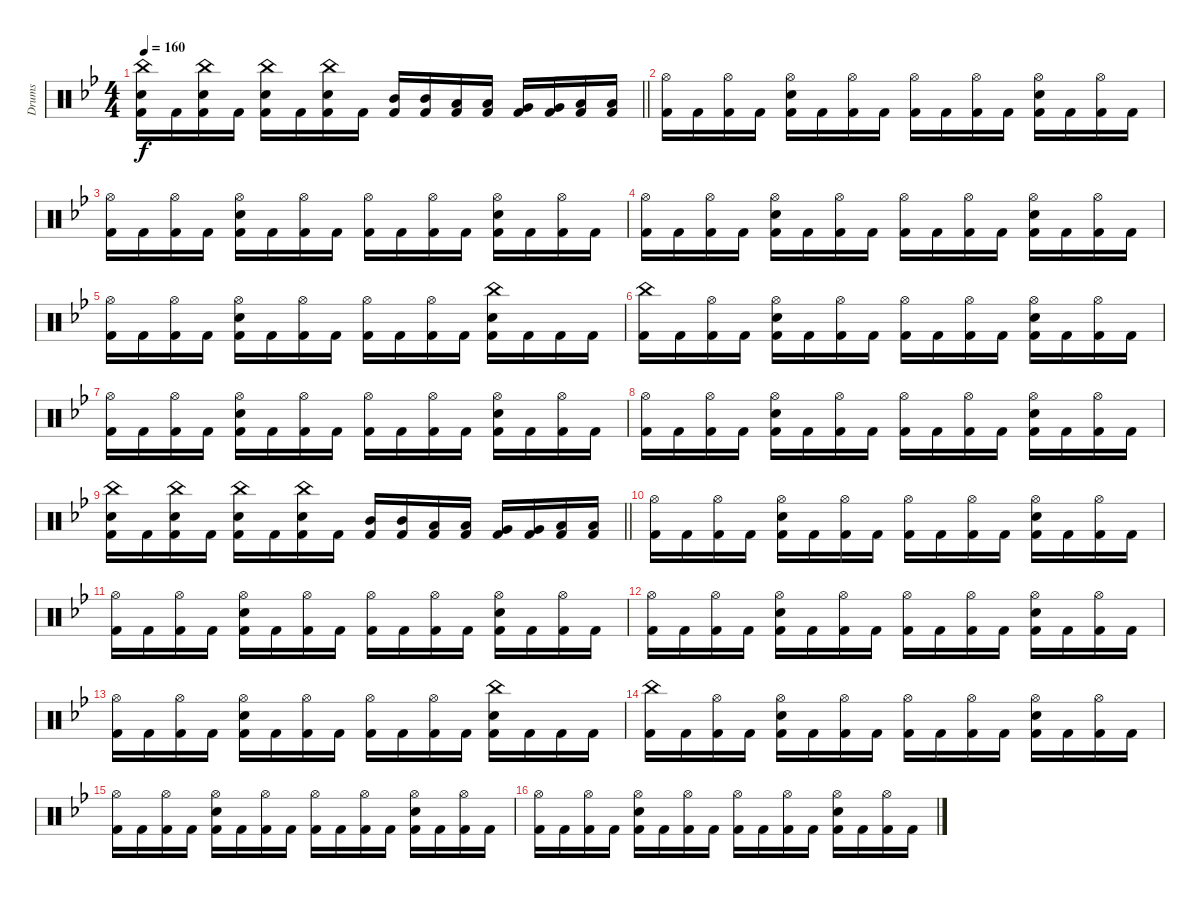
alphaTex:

\track ("Drums" "Drums") {instrument percussion}
\staff {score}
\articulation defaults
\ts (4 4)
\tempo 160
\clef neutral
\barLineRight lightlight
\ks bb
("China (hit)" "Electric Snare (hit)" "Kick (hit) 2").16{dy f} "Kick (hit) 2".16 ("China (hit)" "Electric Snare (hit)" "Kick (hit) 2").16 "Kick (hit) 2".16 ("China (hit)" "Electric Snare (hit)" "Kick (hit) 2").16 "Kick (hit) 2".16 ("China (hit)" "Electric Snare (hit)" "Kick (hit) 2").16 "Kick (hit) 2".16 ("Mid Tom (hit)" "Kick (hit) 2").16 ("Mid Tom (hit)" "Kick (hit) 2").16 ("Low Tom (hit)" "Kick (hit) 2").16 ("Low Tom (hit)" "Kick (hit) 2").16 ("Very Low Tom (hit)" "Kick (hit) 2").16 ("Very Low Tom (hit)" "Kick (hit) 2").16 ("Low Floor Tom (hit)" "Kick (hit) 2").16 ("Low Floor Tom (hit)" "Kick (hit) 2").16 |
("Hi-Hat (open)" "Kick (hit) 2").16 "Kick (hit) 2".16 ("Hi-Hat (open)" "Kick (hit) 2").16 "Kick (hit) 2".16 ("Hi-Hat (open)" "Electric Snare (hit)" "Kick (hit) 2").16 "Kick (hit) 2".16 ("Hi-Hat (open)" "Kick (hit) 2").16 "Kick (hit) 2".16 ("Hi-Hat (open)" "Kick (hit) 2").16 "Kick (hit) 2".16 ("Hi-Hat (open)" "Kick (hit) 2").16 "Kick (hit) 2".16 ("Hi-Hat (open)" "Electric Snare (hit)" "Kick (hit) 2").16 "Kick (hit) 2".16 ("Hi-Hat (open)" "Kick (hit) 2").16 "Kick (hit) 2".16 |
("Hi-Hat (open)" "Kick (hit) 2").16 "Kick (hit) 2".16 ("Hi-Hat (open)" "Kick (hit) 2").16 "Kick (hit) 2".16 ("Hi-Hat (open)" "Electric Snare (hit)" "Kick (hit) 2").16 "Kick (hit) 2".16 ("Hi-Hat (open)" "Kick (hit) 2").16 "Kick (hit) 2".16 ("Hi-Hat (open)" "Kick (hit) 2").16 "Kick (hit) 2".16 ("Hi-Hat (open)" "Kick (hit) 2").16 "Kick (hit) 2".16 ("Hi-Hat (open)" "Electric Snare (hit)" "Kick (hit) 2").16 "Kick (hit) 2".16 ("Hi-Hat (open)" "Kick (hit) 2").16 "Kick (hit) 2".16 |
("Hi-Hat (open)" "Kick (hit) 2").16 "Kick (hit) 2".16 ("Hi-Hat (open)" "Kick (hit) 2").16 "Kick (hit) 2".16 ("Hi-Hat (open)" "Electric Snare (hit)" "Kick (hit) 2").16 "Kick (hit) 2".16 ("Hi-Hat (open)" "Kick (hit) 2").16 "Kick (hit) 2".16 ("Hi-Hat (open)" "Kick (hit) 2").16 "Kick (hit) 2".16 ("Hi-Hat (open)" "Kick (hit) 2").16 "Kick (hit) 2".16 ("Hi-Hat (open)" "Electric Snare (hit)" "Kick (hit) 2").16 "Kick (hit) 2".16 ("Hi-Hat (open)" "Kick (hit) 2").16 "Kick (hit) 2".16 |
("Hi-Hat (open)" "Kick (hit) 2").16 "Kick (hit) 2".16 ("Hi-Hat (open)" "Kick (hit) 2").16 "Kick (hit) 2".16 ("Hi-Hat (open)" "Electric Snare (hit)" "Kick (hit) 2").16 "Kick (hit) 2".16 ("Hi-Hat (open)" "Kick (hit) 2").16 "Kick (hit) 2".16 ("Hi-Hat (open)" "Kick (hit) 2").16 "Kick (hit) 2".16 ("Hi-Hat (open)" "Kick (hit) 2").16 "Kick (hit) 2".16 ("China (hit)" "Electric Snare (hit)" "Kick (hit) 2").16 "Kick (hit) 2".16 "Kick (hit) 2".16 "Kick (hit) 2".16 |
("China (hit)" "Kick (hit) 2").16 "Kick (hit) 2".16 ("Hi-Hat (open)" "Kick (hit) 2").16 "Kick (hit) 2".16 ("Hi-Hat (open)" "Electric Snare (hit)" "Kick (hit) 2").16 "Kick (hit) 2".16 ("Hi-Hat (open)" "Kick (hit) 2").16 "Kick (hit) 2".16 ("Hi-Hat (open)" "Kick (hit) 2").16 "Kick (hit) 2".16 ("Hi-Hat (open)" "Kick (hit) 2").16 "Kick (hit) 2".16 ("Hi-Hat (open)" "Electric Snare (hit)" "Kick (hit) 2").16 "Kick (hit) 2".16 ("Hi-Hat (open)" "Kick (hit) 2").16 "Kick (hit) 2".16 |
("Hi-Hat (open)" "Kick (hit) 2").16 "Kick (hit) 2".16 ("Hi-Hat (open)" "Kick (hit) 2").16 "Kick (hit) 2".16 ("Hi-Hat (open)" "Electric Snare (hit)" "Kick (hit) 2").16 "Kick (hit) 2".16 ("Hi-Hat (open)" "Kick (hit) 2").16 "Kick (hit) 2".16 ("Hi-Hat (open)" "Kick (hit) 2").16 "Kick (hit) 2".16 ("Hi-Hat (open)" "Kick (hit) 2").16 "Kick (hit) 2".16 ("Hi-Hat (open)" "Electric Snare (hit)" "Kick (hit) 2").16 "Kick (hit) 2".16 ("Hi-Hat (open)" "Kick (hit) 2").16 "Kick (hit) 2".16 |
("Hi-Hat (open)" "Kick (hit) 2").16 "Kick (hit) 2".16 ("Hi-Hat (open)" "Kick (hit) 2").16 "Kick (hit) 2".16 ("Hi-Hat (open)" "Electric Snare (hit)" "Kick (hit) 2").16 "Kick (hit) 2".16 ("Hi-Hat (open)" "Kick (hit) 2").16 "Kick (hit) 2".16 ("Hi-Hat (open)" "Kick (hit) 2").16 "Kick (hit) 2".16 ("Hi-Hat (open)" "Kick (hit) 2").16 "Kick (hit) 2".16 ("Hi-Hat (open)" "Electric Snare (hit)" "Kick (hit) 2").16 "Kick (hit) 2".16 ("Hi-Hat (open)" "Kick (hit) 2").16 "Kick (hit) 2".16 |
\barLineRight lightlight
("China (hit)" "Electric Snare (hit)" "Kick (hit) 2").16 "Kick (hit) 2".16 ("China (hit)" "Electric Snare (hit)" "Kick (hit) 2").16 "Kick (hit) 2".16 ("China (hit)" "Electric Snare (hit)" "Kick (hit) 2").16 "Kick (hit) 2".16 ("China (hit)" "Electric Snare (hit)" "Kick (hit) 2").16 "Kick (hit) 2".16 ("Mid Tom (hit)" "Kick (hit) 2").16 ("Mid Tom (hit)" "Kick (hit) 2").16 ("Low Tom (hit)" "Kick (hit) 2").16 ("Low Tom (hit)" "Kick (hit) 2").16 ("Very Low Tom (hit)" "Kick (hit) 2").16 ("Very Low Tom (hit)" "Kick (hit) 2").16 ("Low Floor Tom (hit)" "Kick (hit) 2").16 ("Low Floor Tom (hit)" "Kick (hit) 2").16 |
("Hi-Hat (open)" "Kick (hit) 2").16 "Kick (hit) 2".16 ("Hi-Hat (open)" "Kick (hit) 2").16 "Kick (hit) 2".16 ("Hi-Hat (open)" "Electric Snare (hit)" "Kick (hit) 2").16 "Kick (hit) 2".16 ("Hi-Hat (open)" "Kick (hit) 2").16 "Kick (hit) 2".16 ("Hi-Hat (open)" "Kick (hit) 2").16 "Kick (hit) 2".16 ("Hi-Hat (open)" "Kick (hit) 2").16 "Kick (hit) 2".16 ("Hi-Hat (open)" "Electric Snare (hit)" "Kick (hit) 2").16 "Kick (hit) 2".16 ("Hi-Hat (open)" "Kick (hit) 2").16 "Kick (hit) 2".16 |
("Hi-Hat (open)" "Kick (hit) 2").16 "Kick (hit) 2".16 ("Hi-Hat (open)" "Kick (hit) 2").16 "Kick (hit) 2".16 ("Hi-Hat (open)" "Electric Snare (hit)" "Kick (hit) 2").16 "Kick (hit) 2".16 ("Hi-Hat (open)" "Kick (hit) 2").16 "Kick (hit) 2".16 ("Hi-Hat (open)" "Kick (hit) 2").16 "Kick (hit) 2".16 ("Hi-Hat (open)" "Kick (hit) 2").16 "Kick (hit) 2".16 ("Hi-Hat (open)" "Electric Snare (hit)" "Kick (hit) 2").16 "Kick (hit) 2".16 ("Hi-Hat (open)" "Kick (hit) 2").16 "Kick (hit) 2".16 |
("Hi-Hat (open)" "Kick (hit) 2").16 "Kick (hit) 2".16 ("Hi-Hat (open)" "Kick (hit) 2").16 "Kick (hit) 2".16 ("Hi-Hat (open)" "Electric Snare (hit)" "Kick (hit) 2").16 "Kick (hit) 2".16 ("Hi-Hat (open)" "Kick (hit) 2").16 "Kick (hit) 2".16 ("Hi-Hat (open)" "Kick (hit) 2").16 "Kick (hit) 2".16 ("Hi-Hat (open)" "Kick (hit) 2").16 "Kick (hit) 2".16 ("Hi-Hat (open)" "Electric Snare (hit)" "Kick (hit) 2").16 "Kick (hit) 2".16 ("Hi-Hat (open)" "Kick (hit) 2").16 "Kick (hit) 2".16 |
("Hi-Hat (open)" "Kick (hit) 2").16 "Kick (hit) 2".16 ("Hi-Hat (open)" "Kick (hit) 2").16 "Kick (hit) 2".16 ("Hi-Hat (open)" "Electric Snare (hit)" "Kick (hit) 2").16 "Kick (hit) 2".16 ("Hi-Hat (open)" "Kick (hit) 2").16 "Kick (hit) 2".16 ("Hi-Hat (open)" "Kick (hit) 2").16 "Kick (hit) 2".16 ("Hi-Hat (open)" "Kick (hit) 2").16 "Kick (hit) 2".16 ("China (hit)" "Electric Snare (hit)" "Kick (hit) 2").16 "Kick (hit) 2".16 "Kick (hit) 2".16 "Kick (hit) 2".16 |
("China (hit)" "Kick (hit) 2").16 "Kick (hit) 2".16 ("Hi-Hat (open)" "Kick (hit) 2").16 "Kick (hit) 2".16 ("Hi-Hat (open)" "Electric Snare (hit)" "Kick (hit) 2").16 "Kick (hit) 2".16 ("Hi-Hat (open)" "Kick (hit) 2").16 "Kick (hit) 2".16 ("Hi-Hat (open)" "Kick (hit) 2").16 "Kick (hit) 2".16 ("Hi-Hat (open)" "Kick (hit) 2").16 "Kick (hit) 2".16 ("Hi-Hat (open)" "Electric Snare (hit)" "Kick (hit) 2").16 "Kick (hit) 2".16 ("Hi-Hat (open)" "Kick (hit) 2").16 "Kick (hit) 2".16 |
("Hi-Hat (open)" "Kick (hit) 2").16 "Kick (hit) 2".16 ("Hi-Hat (open)" "Kick (hit) 2").16 "Kick (hit) 2".16 ("Hi-Hat (open)" "Electric Snare (hit)" "Kick (hit) 2").16 "Kick (hit) 2".16 ("Hi-Hat (open)" "Kick (hit) 2").16 "Kick (hit) 2".16 ("Hi-Hat (open)" "Kick (hit) 2").16 "Kick (hit) 2".16 ("Hi-Hat (open)" "Kick (hit) 2").16 "Kick (hit) 2".16 ("Hi-Hat (open)" "Electric Snare (hit)" "Kick (hit) 2").16 "Kick (hit) 2".16 ("Hi-Hat (open)" "Kick (hit) 2").16 "Kick (hit) 2".16 |
("Hi-Hat (open)" "Kick (hit) 2").16 "Kick (hit) 2".16 ("Hi-Hat (open)" "Kick (hit) 2").16 "Kick (hit) 2".16 ("Hi-Hat (open)" "Electric Snare (hit)" "Kick (hit) 2").16 "Kick (hit) 2".16 ("Hi-Hat (open)" "Kick (hit) 2").16 "Kick (hit) 2".16 ("Hi-Hat (open)" "Kick (hit) 2").16 "Kick (hit) 2".16 ("Hi-Hat (open)" "Kick (hit) 2").16 "Kick (hit) 2".16 ("Hi-Hat (open)" "Electric Snare (hit)" "Kick (hit) 2").16 "Kick (hit) 2".16 ("Hi-Hat (open)" "Kick (hit) 2").16 "Kick (hit) 2".16
